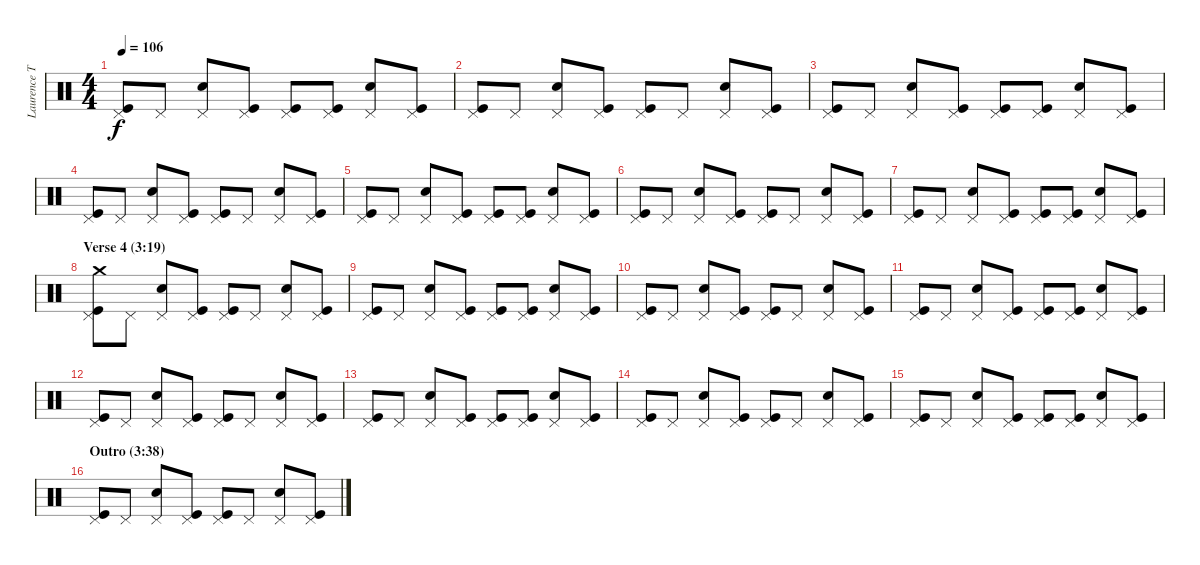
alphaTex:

\track ("Laurence Tolhurst (drums)" "Laurence T") {instrument percussion}
\staff {score}
\articulation defaults
\ts (4 4)
\tempo 106
\clef neutral
\ks c
("Pedal Hi-Hat (hit)" "Kick (hit)").8{dy f} "Pedal Hi-Hat (hit)".8 ("Pedal Hi-Hat (hit)" "Snare (hit) 2").8 ("Pedal Hi-Hat (hit)" "Kick (hit)").8 ("Pedal Hi-Hat (hit)" "Kick (hit)").8 ("Pedal Hi-Hat (hit)" "Kick (hit)").8 ("Pedal Hi-Hat (hit)" "Snare (hit) 2").8 ("Pedal Hi-Hat (hit)" "Kick (hit)").8 |
("Pedal Hi-Hat (hit)" "Kick (hit)").8 "Pedal Hi-Hat (hit)".8 ("Pedal Hi-Hat (hit)" "Snare (hit) 2").8 ("Pedal Hi-Hat (hit)" "Kick (hit)").8 ("Pedal Hi-Hat (hit)" "Kick (hit)").8 "Pedal Hi-Hat (hit)".8 ("Pedal Hi-Hat (hit)" "Snare (hit) 2").8 ("Pedal Hi-Hat (hit)" "Kick (hit)").8 |
("Pedal Hi-Hat (hit)" "Kick (hit)").8 "Pedal Hi-Hat (hit)".8 ("Pedal Hi-Hat (hit)" "Snare (hit) 2").8 ("Pedal Hi-Hat (hit)" "Kick (hit)").8 ("Pedal Hi-Hat (hit)" "Kick (hit)").8 ("Pedal Hi-Hat (hit)" "Kick (hit)").8 ("Pedal Hi-Hat (hit)" "Snare (hit) 2").8 ("Pedal Hi-Hat (hit)" "Kick (hit)").8 |
("Pedal Hi-Hat (hit)" "Kick (hit)").8 "Pedal Hi-Hat (hit)".8 ("Pedal Hi-Hat (hit)" "Snare (hit) 2").8 ("Pedal Hi-Hat (hit)" "Kick (hit)").8 ("Pedal Hi-Hat (hit)" "Kick (hit)").8 "Pedal Hi-Hat (hit)".8 ("Pedal Hi-Hat (hit)" "Snare (hit) 2").8 ("Pedal Hi-Hat (hit)" "Kick (hit)").8 |
("Pedal Hi-Hat (hit)" "Kick (hit)").8 "Pedal Hi-Hat (hit)".8 ("Pedal Hi-Hat (hit)" "Snare (hit) 2").8 ("Pedal Hi-Hat (hit)" "Kick (hit)").8 ("Pedal Hi-Hat (hit)" "Kick (hit)").8 ("Pedal Hi-Hat (hit)" "Kick (hit)").8 ("Pedal Hi-Hat (hit)" "Snare (hit) 2").8 ("Pedal Hi-Hat (hit)" "Kick (hit)").8 |
("Pedal Hi-Hat (hit)" "Kick (hit)").8 "Pedal Hi-Hat (hit)".8 ("Pedal Hi-Hat (hit)" "Snare (hit) 2").8 ("Pedal Hi-Hat (hit)" "Kick (hit)").8 ("Pedal Hi-Hat (hit)" "Kick (hit)").8 "Pedal Hi-Hat (hit)".8 ("Pedal Hi-Hat (hit)" "Snare (hit) 2").8 ("Pedal Hi-Hat (hit)" "Kick (hit)").8 |
("Pedal Hi-Hat (hit)" "Kick (hit)").8 "Pedal Hi-Hat (hit)".8 ("Pedal Hi-Hat (hit)" "Snare (hit) 2").8 ("Pedal Hi-Hat (hit)" "Kick (hit)").8 ("Pedal Hi-Hat (hit)" "Kick (hit)").8 ("Pedal Hi-Hat (hit)" "Kick (hit)").8 ("Pedal Hi-Hat (hit)" "Snare (hit) 2").8 ("Pedal Hi-Hat (hit)" "Kick (hit)").8 |
\section ("" "Verse 4 (3:19)")
("Crash medium (hit)" "Pedal Hi-Hat (hit)" "Kick (hit)").8 "Pedal Hi-Hat (hit)".8 ("Pedal Hi-Hat (hit)" "Snare (hit) 2").8 ("Pedal Hi-Hat (hit)" "Kick (hit)").8 ("Pedal Hi-Hat (hit)" "Kick (hit)").8 "Pedal Hi-Hat (hit)".8 ("Pedal Hi-Hat (hit)" "Snare (hit) 2").8 ("Pedal Hi-Hat (hit)" "Kick (hit)").8 |
("Pedal Hi-Hat (hit)" "Kick (hit)").8 "Pedal Hi-Hat (hit)".8 ("Pedal Hi-Hat (hit)" "Snare (hit) 2").8 ("Pedal Hi-Hat (hit)" "Kick (hit)").8 ("Pedal Hi-Hat (hit)" "Kick (hit)").8 ("Pedal Hi-Hat (hit)" "Kick (hit)").8 ("Pedal Hi-Hat (hit)" "Snare (hit) 2").8 ("Pedal Hi-Hat (hit)" "Kick (hit)").8 |
("Pedal Hi-Hat (hit)" "Kick (hit)").8 "Pedal Hi-Hat (hit)".8 ("Pedal Hi-Hat (hit)" "Snare (hit) 2").8 ("Pedal Hi-Hat (hit)" "Kick (hit)").8 ("Pedal Hi-Hat (hit)" "Kick (hit)").8 "Pedal Hi-Hat (hit)".8 ("Pedal Hi-Hat (hit)" "Snare (hit) 2").8 ("Pedal Hi-Hat (hit)" "Kick (hit)").8 |
("Pedal Hi-Hat (hit)" "Kick (hit)").8 "Pedal Hi-Hat (hit)".8 ("Pedal Hi-Hat (hit)" "Snare (hit) 2").8 ("Pedal Hi-Hat (hit)" "Kick (hit)").8 ("Pedal Hi-Hat (hit)" "Kick (hit)").8 ("Pedal Hi-Hat (hit)" "Kick (hit)").8 ("Pedal Hi-Hat (hit)" "Snare (hit) 2").8 ("Pedal Hi-Hat (hit)" "Kick (hit)").8 |
("Pedal Hi-Hat (hit)" "Kick (hit)").8 "Pedal Hi-Hat (hit)".8 ("Pedal Hi-Hat (hit)" "Snare (hit) 2").8 ("Pedal Hi-Hat (hit)" "Kick (hit)").8 ("Pedal Hi-Hat (hit)" "Kick (hit)").8 "Pedal Hi-Hat (hit)".8 ("Pedal Hi-Hat (hit)" "Snare (hit) 2").8 ("Pedal Hi-Hat (hit)" "Kick (hit)").8 |
("Pedal Hi-Hat (hit)" "Kick (hit)").8 "Pedal Hi-Hat (hit)".8 ("Pedal Hi-Hat (hit)" "Snare (hit) 2").8 ("Pedal Hi-Hat (hit)" "Kick (hit)").8 ("Pedal Hi-Hat (hit)" "Kick (hit)").8 ("Pedal Hi-Hat (hit)" "Kick (hit)").8 ("Pedal Hi-Hat (hit)" "Snare (hit) 2").8 ("Pedal Hi-Hat (hit)" "Kick (hit)").8 |
("Pedal Hi-Hat (hit)" "Kick (hit)").8 "Pedal Hi-Hat (hit)".8 ("Pedal Hi-Hat (hit)" "Snare (hit) 2").8 ("Pedal Hi-Hat (hit)" "Kick (hit)").8 ("Pedal Hi-Hat (hit)" "Kick (hit)").8 "Pedal Hi-Hat (hit)".8 ("Pedal Hi-Hat (hit)" "Snare (hit) 2").8 ("Pedal Hi-Hat (hit)" "Kick (hit)").8 |
("Pedal Hi-Hat (hit)" "Kick (hit)").8 "Pedal Hi-Hat (hit)".8 ("Pedal Hi-Hat (hit)" "Snare (hit) 2").8 ("Pedal Hi-Hat (hit)" "Kick (hit)").8 ("Pedal Hi-Hat (hit)" "Kick (hit)").8 ("Pedal Hi-Hat (hit)" "Kick (hit)").8 ("Pedal Hi-Hat (hit)" "Snare (hit) 2").8 ("Pedal Hi-Hat (hit)" "Kick (hit)").8 |
\section ("" "Outro (3:38)")
("Pedal Hi-Hat (hit)" "Kick (hit)").8 "Pedal Hi-Hat (hit)".8 ("Pedal Hi-Hat (hit)" "Snare (hit) 2").8 ("Pedal Hi-Hat (hit)" "Kick (hit)").8 ("Pedal Hi-Hat (hit)" "Kick (hit)").8 "Pedal Hi-Hat (hit)".8 ("Pedal Hi-Hat (hit)" "Snare (hit) 2").8 ("Pedal Hi-Hat (hit)" "Kick (hit)").8
